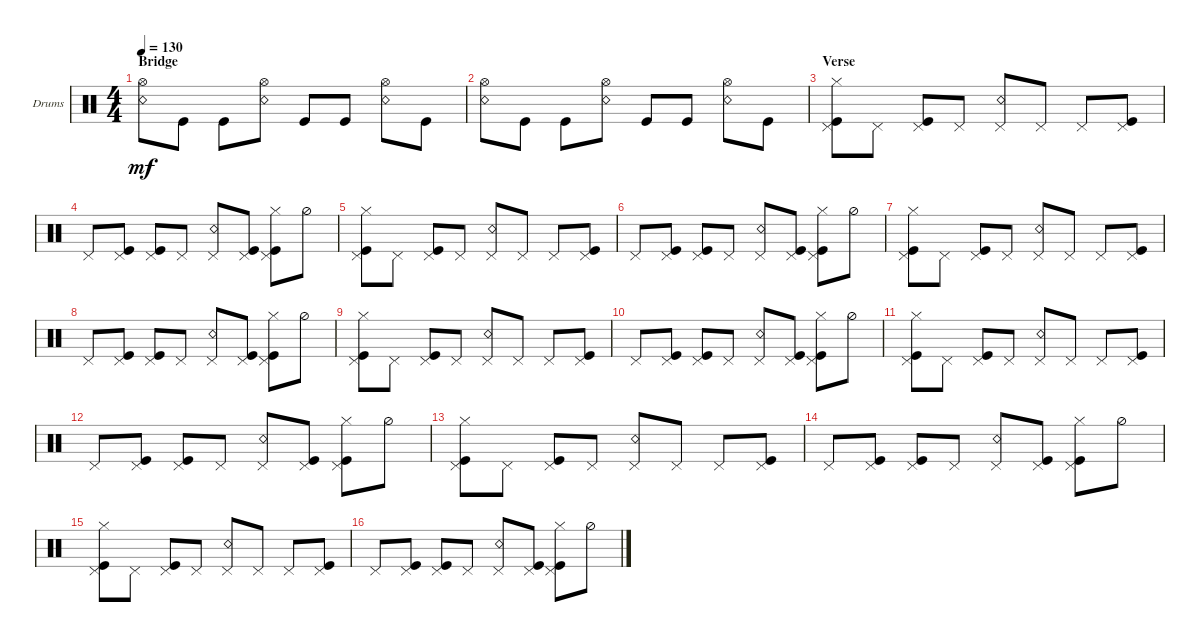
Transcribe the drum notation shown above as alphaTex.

\defaultSystemsLayout 4
\bracketExtendMode groupsimilarinstruments
\firstSystemTrackNameOrientation horizontal
\otherSystemsTrackNameOrientation horizontal
\track ("Drumkit" "Drums") {instrument percussion}
\staff {score}
\articulation defaults
\ts (4 4)
\section ("" "Bridge")
\tempo 130
\clef neutral
\ks c
("Snare (rim shot)" "Hi-Hat (open)").8{dy mf} "Kick (hit)".8 "Kick (hit)".8 ("Snare (rim shot)" "Hi-Hat (open)").8 "Kick (hit)".8 "Kick (hit)".8 ("Snare (rim shot)" "Hi-Hat (open)").8 "Kick (hit)".8 |
("Snare (rim shot)" "Hi-Hat (open)").8 "Kick (hit)".8 "Kick (hit)".8 ("Snare (rim shot)" "Hi-Hat (open)").8 "Kick (hit)".8 "Kick (hit)".8 ("Snare (rim shot)" "Hi-Hat (open)").8 "Kick (hit)".8 |
\section ("" "Verse")
("Kick (hit)" "Pedal Hi-Hat (hit)" "Hi-Hat (closed)").8 "Pedal Hi-Hat (hit)".8 ("Kick (hit)" "Pedal Hi-Hat (hit)").8 "Pedal Hi-Hat (hit)".8 ("Snare (rim shot)" "Pedal Hi-Hat (hit)").8 "Pedal Hi-Hat (hit)".8 "Pedal Hi-Hat (hit)".8 ("Kick (hit)" "Pedal Hi-Hat (hit)").8 |
"Pedal Hi-Hat (hit)".8 ("Kick (hit)" "Pedal Hi-Hat (hit)").8 ("Kick (hit)" "Pedal Hi-Hat (hit)").8 "Pedal Hi-Hat (hit)".8 ("Snare (rim shot)" "Pedal Hi-Hat (hit)").8 ("Kick (hit)" "Pedal Hi-Hat (hit)").8 ("Kick (hit)" "Hi-Hat (closed)" "Pedal Hi-Hat (hit)").8 "Hi-Hat (half)".8 |
("Kick (hit)" "Pedal Hi-Hat (hit)" "Hi-Hat (closed)").8 "Pedal Hi-Hat (hit)".8 ("Kick (hit)" "Pedal Hi-Hat (hit)").8 "Pedal Hi-Hat (hit)".8 ("Snare (rim shot)" "Pedal Hi-Hat (hit)").8 "Pedal Hi-Hat (hit)".8 "Pedal Hi-Hat (hit)".8 ("Kick (hit)" "Pedal Hi-Hat (hit)").8 |
"Pedal Hi-Hat (hit)".8 ("Kick (hit)" "Pedal Hi-Hat (hit)").8 ("Kick (hit)" "Pedal Hi-Hat (hit)").8 "Pedal Hi-Hat (hit)".8 ("Snare (rim shot)" "Pedal Hi-Hat (hit)").8 ("Kick (hit)" "Pedal Hi-Hat (hit)").8 ("Kick (hit)" "Hi-Hat (closed)" "Pedal Hi-Hat (hit)").8 "Hi-Hat (half)".8 |
("Kick (hit)" "Pedal Hi-Hat (hit)" "Hi-Hat (closed)").8 "Pedal Hi-Hat (hit)".8 ("Kick (hit)" "Pedal Hi-Hat (hit)").8 "Pedal Hi-Hat (hit)".8 ("Snare (rim shot)" "Pedal Hi-Hat (hit)").8 "Pedal Hi-Hat (hit)".8 "Pedal Hi-Hat (hit)".8 ("Kick (hit)" "Pedal Hi-Hat (hit)").8 |
"Pedal Hi-Hat (hit)".8 ("Kick (hit)" "Pedal Hi-Hat (hit)").8 ("Kick (hit)" "Pedal Hi-Hat (hit)").8 "Pedal Hi-Hat (hit)".8 ("Snare (rim shot)" "Pedal Hi-Hat (hit)").8 ("Kick (hit)" "Pedal Hi-Hat (hit)").8 ("Kick (hit)" "Hi-Hat (closed)" "Pedal Hi-Hat (hit)").8 "Hi-Hat (half)".8 |
("Kick (hit)" "Pedal Hi-Hat (hit)" "Hi-Hat (closed)").8 "Pedal Hi-Hat (hit)".8 ("Kick (hit)" "Pedal Hi-Hat (hit)").8 "Pedal Hi-Hat (hit)".8 ("Snare (rim shot)" "Pedal Hi-Hat (hit)").8 "Pedal Hi-Hat (hit)".8 "Pedal Hi-Hat (hit)".8 ("Kick (hit)" "Pedal Hi-Hat (hit)").8 |
"Pedal Hi-Hat (hit)".8 ("Kick (hit)" "Pedal Hi-Hat (hit)").8 ("Kick (hit)" "Pedal Hi-Hat (hit)").8 "Pedal Hi-Hat (hit)".8 ("Snare (rim shot)" "Pedal Hi-Hat (hit)").8 ("Kick (hit)" "Pedal Hi-Hat (hit)").8 ("Kick (hit)" "Hi-Hat (closed)" "Pedal Hi-Hat (hit)").8 "Hi-Hat (half)".8 |
("Kick (hit)" "Pedal Hi-Hat (hit)" "Hi-Hat (closed)").8 "Pedal Hi-Hat (hit)".8 ("Kick (hit)" "Pedal Hi-Hat (hit)").8 "Pedal Hi-Hat (hit)".8 ("Snare (rim shot)" "Pedal Hi-Hat (hit)").8 "Pedal Hi-Hat (hit)".8 "Pedal Hi-Hat (hit)".8 ("Kick (hit)" "Pedal Hi-Hat (hit)").8 |
"Pedal Hi-Hat (hit)".8 ("Kick (hit)" "Pedal Hi-Hat (hit)").8 ("Kick (hit)" "Pedal Hi-Hat (hit)").8 "Pedal Hi-Hat (hit)".8 ("Snare (rim shot)" "Pedal Hi-Hat (hit)").8 ("Kick (hit)" "Pedal Hi-Hat (hit)").8 ("Kick (hit)" "Hi-Hat (closed)" "Pedal Hi-Hat (hit)").8 "Hi-Hat (half)".8 |
("Kick (hit)" "Pedal Hi-Hat (hit)" "Hi-Hat (closed)").8 "Pedal Hi-Hat (hit)".8 ("Kick (hit)" "Pedal Hi-Hat (hit)").8 "Pedal Hi-Hat (hit)".8 ("Snare (rim shot)" "Pedal Hi-Hat (hit)").8 "Pedal Hi-Hat (hit)".8 "Pedal Hi-Hat (hit)".8 ("Kick (hit)" "Pedal Hi-Hat (hit)").8 |
"Pedal Hi-Hat (hit)".8 ("Kick (hit)" "Pedal Hi-Hat (hit)").8 ("Kick (hit)" "Pedal Hi-Hat (hit)").8 "Pedal Hi-Hat (hit)".8 ("Snare (rim shot)" "Pedal Hi-Hat (hit)").8 ("Kick (hit)" "Pedal Hi-Hat (hit)").8 ("Kick (hit)" "Hi-Hat (closed)" "Pedal Hi-Hat (hit)").8 "Hi-Hat (half)".8 |
("Kick (hit)" "Pedal Hi-Hat (hit)" "Hi-Hat (closed)").8 "Pedal Hi-Hat (hit)".8 ("Kick (hit)" "Pedal Hi-Hat (hit)").8 "Pedal Hi-Hat (hit)".8 ("Snare (rim shot)" "Pedal Hi-Hat (hit)").8 "Pedal Hi-Hat (hit)".8 "Pedal Hi-Hat (hit)".8 ("Kick (hit)" "Pedal Hi-Hat (hit)").8 |
"Pedal Hi-Hat (hit)".8 ("Kick (hit)" "Pedal Hi-Hat (hit)").8 ("Kick (hit)" "Pedal Hi-Hat (hit)").8 "Pedal Hi-Hat (hit)".8 ("Snare (rim shot)" "Pedal Hi-Hat (hit)").8 ("Kick (hit)" "Pedal Hi-Hat (hit)").8 ("Kick (hit)" "Hi-Hat (closed)" "Pedal Hi-Hat (hit)").8 "Hi-Hat (half)".8
